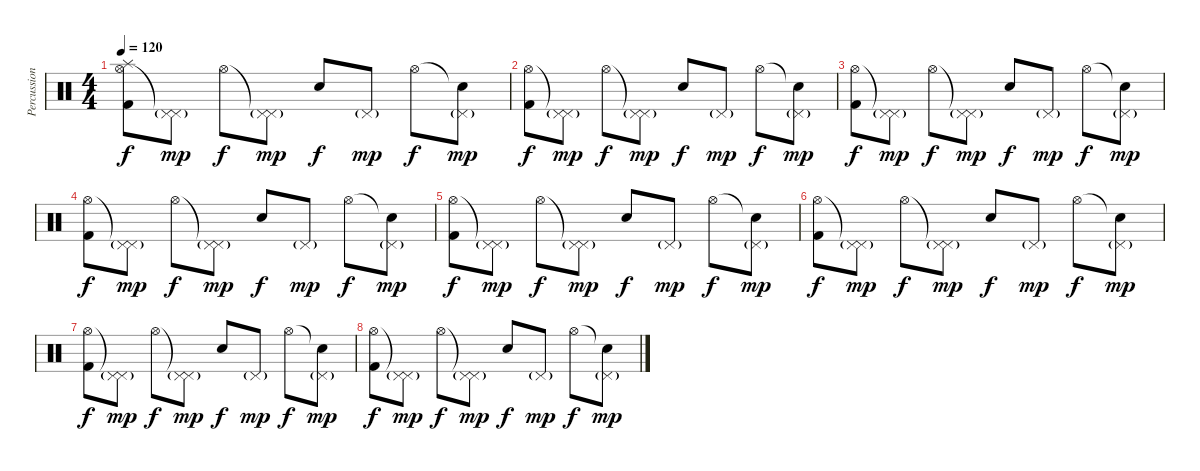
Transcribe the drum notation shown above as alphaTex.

\track ("Percussion" "Percussion") {instrument percussion}
\staff {score}
\articulation defaults
\ts (4 4)
\tempo 120
\clef neutral
\ks c
("Hi-Hat (open)" "Splash (hit)" "Kick (hit) 2").8{dy f} ("Pedal Hi-Hat (hit)"{t} "Pedal Hi-Hat (hit)"{g}).8{dy mp} "Hi-Hat (open)".8{dy f} ("Pedal Hi-Hat (hit)"{t} "Pedal Hi-Hat (hit)"{g}).8{dy mp} "Snare (hit) 2".8{dy f} "Pedal Hi-Hat (hit)"{g}.8{dy mp} "Hi-Hat (open)".8{dy f} ("Snare (hit)"{t} "Pedal Hi-Hat (hit)"{g}).8{dy mp} |
("Hi-Hat (open)" "Kick (hit) 2").8{dy f} ("Pedal Hi-Hat (hit)"{t} "Pedal Hi-Hat (hit)"{g}).8{dy mp} "Hi-Hat (open)".8{dy f} ("Pedal Hi-Hat (hit)"{t} "Pedal Hi-Hat (hit)"{g}).8{dy mp} "Snare (hit) 2".8{dy f} "Pedal Hi-Hat (hit)"{g}.8{dy mp} "Hi-Hat (open)".8{dy f} ("Snare (hit)"{t} "Pedal Hi-Hat (hit)"{g}).8{dy mp} |
("Hi-Hat (open)" "Kick (hit) 2").8{dy f} ("Pedal Hi-Hat (hit)"{t} "Pedal Hi-Hat (hit)"{g}).8{dy mp} "Hi-Hat (open)".8{dy f} ("Pedal Hi-Hat (hit)"{t} "Pedal Hi-Hat (hit)"{g}).8{dy mp} "Snare (hit) 2".8{dy f} "Pedal Hi-Hat (hit)"{g}.8{dy mp} "Hi-Hat (open)".8{dy f} ("Snare (hit)"{t} "Pedal Hi-Hat (hit)"{g}).8{dy mp} |
("Hi-Hat (open)" "Kick (hit) 2").8{dy f} ("Pedal Hi-Hat (hit)"{t} "Pedal Hi-Hat (hit)"{g}).8{dy mp} "Hi-Hat (open)".8{dy f} ("Pedal Hi-Hat (hit)"{t} "Pedal Hi-Hat (hit)"{g}).8{dy mp} "Snare (hit) 2".8{dy f} "Pedal Hi-Hat (hit)"{g}.8{dy mp} "Hi-Hat (open)".8{dy f} ("Snare (hit)"{t} "Pedal Hi-Hat (hit)"{g}).8{dy mp} |
("Hi-Hat (open)" "Kick (hit) 2").8{dy f} ("Pedal Hi-Hat (hit)"{t} "Pedal Hi-Hat (hit)"{g}).8{dy mp} "Hi-Hat (open)".8{dy f} ("Pedal Hi-Hat (hit)"{t} "Pedal Hi-Hat (hit)"{g}).8{dy mp} "Snare (hit) 2".8{dy f} "Pedal Hi-Hat (hit)"{g}.8{dy mp} "Hi-Hat (open)".8{dy f} ("Snare (hit)"{t} "Pedal Hi-Hat (hit)"{g}).8{dy mp} |
("Hi-Hat (open)" "Kick (hit) 2").8{dy f} ("Pedal Hi-Hat (hit)"{t} "Pedal Hi-Hat (hit)"{g}).8{dy mp} "Hi-Hat (open)".8{dy f} ("Pedal Hi-Hat (hit)"{t} "Pedal Hi-Hat (hit)"{g}).8{dy mp} "Snare (hit) 2".8{dy f} "Pedal Hi-Hat (hit)"{g}.8{dy mp} "Hi-Hat (open)".8{dy f} ("Snare (hit)"{t} "Pedal Hi-Hat (hit)"{g}).8{dy mp} |
("Hi-Hat (open)" "Kick (hit) 2").8{dy f} ("Pedal Hi-Hat (hit)"{t} "Pedal Hi-Hat (hit)"{g}).8{dy mp} "Hi-Hat (open)".8{dy f} ("Pedal Hi-Hat (hit)"{t} "Pedal Hi-Hat (hit)"{g}).8{dy mp} "Snare (hit) 2".8{dy f} "Pedal Hi-Hat (hit)"{g}.8{dy mp} "Hi-Hat (open)".8{dy f} ("Snare (hit)"{t} "Pedal Hi-Hat (hit)"{g}).8{dy mp} |
("Hi-Hat (open)" "Kick (hit) 2").8{dy f} ("Pedal Hi-Hat (hit)"{t} "Pedal Hi-Hat (hit)"{g}).8{dy mp} "Hi-Hat (open)".8{dy f} ("Pedal Hi-Hat (hit)"{t} "Pedal Hi-Hat (hit)"{g}).8{dy mp} "Snare (hit) 2".8{dy f} "Pedal Hi-Hat (hit)"{g}.8{dy mp} "Hi-Hat (open)".8{dy f} ("Snare (hit)"{t} "Pedal Hi-Hat (hit)"{g}).8{dy mp}
